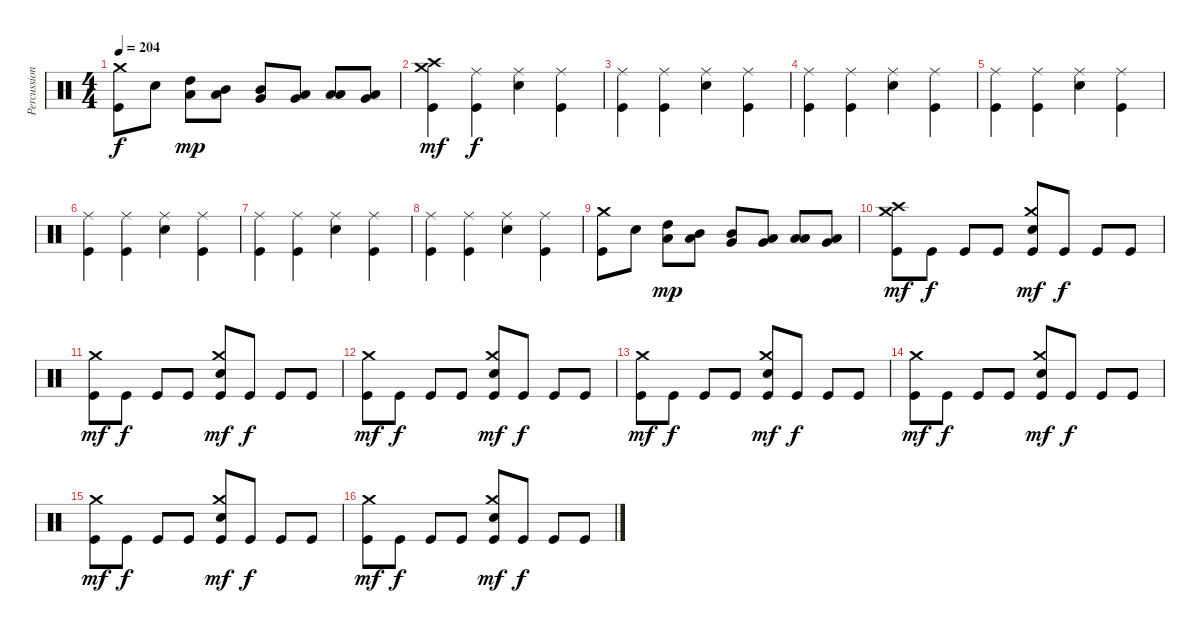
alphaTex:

\track ("Percussions" "Percussion") {instrument percussion}
\staff {score}
\articulation defaults
\ts (4 4)
\tempo 204
\clef neutral
\ks c
("Kick (hit)" "Crash medium (hit)").8{dy f} "Electric Snare (hit)".8 ("Low Tom (hit)" "High Tom (hit)").8{dy mp} ("Low Tom (hit)" "Mid Tom (hit)").8 ("Very Low Tom (hit)" "Mid Tom (hit)").8 ("Very Low Tom (hit)" "Low Tom (hit)").8 ("Low Floor Tom (hit)" "Low Tom (hit)").8 ("Low Floor Tom (hit)" "Very Low Tom (hit)").8 |
("Kick (hit)" "Crash high (hit)" "Crash medium (hit)").4{dy mf} ("Kick (hit)" "Ride (middle)").4{dy f} ("Electric Snare (hit)" "Ride (middle)").4 ("Kick (hit)" "Ride (middle)").4 |
("Kick (hit)" "Ride (middle)").4 ("Kick (hit)" "Ride (middle)").4 ("Electric Snare (hit)" "Ride (middle)").4 ("Kick (hit)" "Ride (middle)").4 |
("Kick (hit)" "Ride (middle)").4 ("Kick (hit)" "Ride (middle)").4 ("Electric Snare (hit)" "Ride (middle)").4 ("Kick (hit)" "Ride (middle)").4 |
("Kick (hit)" "Ride (middle)").4 ("Kick (hit)" "Ride (middle)").4 ("Electric Snare (hit)" "Ride (middle)").4 ("Kick (hit)" "Ride (middle)").4 |
("Kick (hit)" "Ride (middle)").4 ("Kick (hit)" "Ride (middle)").4 ("Electric Snare (hit)" "Ride (middle)").4 ("Kick (hit)" "Ride (middle)").4 |
("Kick (hit)" "Ride (middle)").4 ("Kick (hit)" "Ride (middle)").4 ("Electric Snare (hit)" "Ride (middle)").4 ("Kick (hit)" "Ride (middle)").4 |
("Kick (hit)" "Ride (middle)").4 ("Kick (hit)" "Ride (middle)").4 ("Electric Snare (hit)" "Ride (middle)").4 ("Kick (hit)" "Ride (middle)").4 |
("Kick (hit)" "Crash medium (hit)").8 "Electric Snare (hit)".8 ("Low Tom (hit)" "High Tom (hit)").8{dy mp} ("Low Tom (hit)" "Mid Tom (hit)").8 ("Very Low Tom (hit)" "Mid Tom (hit)").8 ("Very Low Tom (hit)" "Low Tom (hit)").8 ("Low Floor Tom (hit)" "Low Tom (hit)").8 ("Low Floor Tom (hit)" "Very Low Tom (hit)").8 |
("Kick (hit)" "Crash medium (hit)" "Crash high (hit)").8{dy mf} "Kick (hit)".8{dy f} "Kick (hit)".8 "Kick (hit)".8 ("Kick (hit)" "Electric Snare (hit)" "Crash medium (hit)").8{dy mf} "Kick (hit)".8{dy f} "Kick (hit)".8 "Kick (hit)".8 |
("Kick (hit)" "Crash medium (hit)").8{dy mf} "Kick (hit)".8{dy f} "Kick (hit)".8 "Kick (hit)".8 ("Kick (hit)" "Electric Snare (hit)" "Crash medium (hit)").8{dy mf} "Kick (hit)".8{dy f} "Kick (hit)".8 "Kick (hit)".8 |
("Kick (hit)" "Crash medium (hit)").8{dy mf} "Kick (hit)".8{dy f} "Kick (hit)".8 "Kick (hit)".8 ("Kick (hit)" "Electric Snare (hit)" "Crash medium (hit)").8{dy mf} "Kick (hit)".8{dy f} "Kick (hit)".8 "Kick (hit)".8 |
("Kick (hit)" "Crash medium (hit)").8{dy mf} "Kick (hit)".8{dy f} "Kick (hit)".8 "Kick (hit)".8 ("Kick (hit)" "Electric Snare (hit)" "Crash medium (hit)").8{dy mf} "Kick (hit)".8{dy f} "Kick (hit)".8 "Kick (hit)".8 |
("Kick (hit)" "Crash medium (hit)").8{dy mf} "Kick (hit)".8{dy f} "Kick (hit)".8 "Kick (hit)".8 ("Kick (hit)" "Electric Snare (hit)" "Crash medium (hit)").8{dy mf} "Kick (hit)".8{dy f} "Kick (hit)".8 "Kick (hit)".8 |
("Kick (hit)" "Crash medium (hit)").8{dy mf} "Kick (hit)".8{dy f} "Kick (hit)".8 "Kick (hit)".8 ("Kick (hit)" "Electric Snare (hit)" "Crash medium (hit)").8{dy mf} "Kick (hit)".8{dy f} "Kick (hit)".8 "Kick (hit)".8 |
("Kick (hit)" "Crash medium (hit)").8{dy mf} "Kick (hit)".8{dy f} "Kick (hit)".8 "Kick (hit)".8 ("Kick (hit)" "Electric Snare (hit)" "Crash medium (hit)").8{dy mf} "Kick (hit)".8{dy f} "Kick (hit)".8 "Kick (hit)".8
